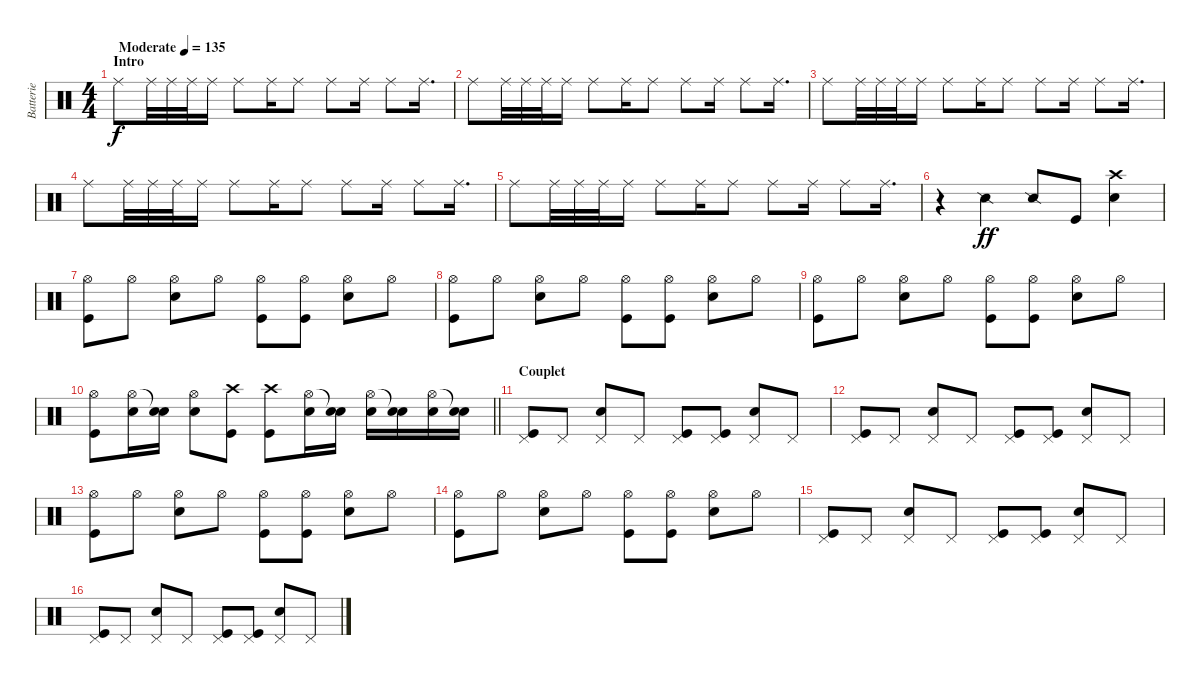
\track ("Batterie" "Batterie") {instrument percussion}
\staff {score}
\articulation defaults
\ts (4 4)
\section ("" "Intro")
\tempo (135 "Moderate")
\clef neutral
\ks c "Ride (middle)".8{dy f volume 12} "Ride (middle)".32 "Ride (middle)".32 "Ride (middle)".32 "Ride (middle)".16 "Ride (middle)".8 "Ride (middle)".16 "Ride (middle)".8 "Ride (middle)".8 "Ride (middle)".16 "Ride (middle)".8 "Ride (middle)".16{d}
|
"Ride (middle)".8 "Ride (middle)".32 "Ride (middle)".32 "Ride (middle)".32 "Ride (middle)".16 "Ride (middle)".8 "Ride (middle)".16 "Ride (middle)".8 "Ride (middle)".8 "Ride (middle)".16 "Ride (middle)".8 "Ride (middle)".16{d} |
"Ride (middle)".8{volume 8} "Ride (middle)".32 "Ride (middle)".32 "Ride (middle)".32 "Ride (middle)".16 "Ride (middle)".8 "Ride (middle)".16 "Ride (middle)".8 "Ride (middle)".8 "Ride (middle)".16 "Ride (middle)".8 "Ride (middle)".16{d} |
"Ride (middle)".8 "Ride (middle)".32 "Ride (middle)".32 "Ride (middle)".32 "Ride (middle)".16 "Ride (middle)".8 "Ride (middle)".16 "Ride (middle)".8 "Ride (middle)".8 "Ride (middle)".16 "Ride (middle)".8 "Ride (middle)".16{d} |
"Ride (middle)".8 "Ride (middle)".32 "Ride (middle)".32 "Ride (middle)".32 "Ride (middle)".16 "Ride (middle)".8 "Ride (middle)".16 "Ride (middle)".8 "Ride (middle)".8 "Ride (middle)".16 "Ride (middle)".8 "Ride (middle)".16{d} |
r.4 "Snare (side stick) 2".4{dy ff volume 16} "Snare (side stick) 2".8 "Kick (hit)".8 ("Crash high (hit)" "Electric Snare (hit)").4 |
("Hi-Hat (open)" "Kick (hit)").8 "Hi-Hat (open)".8 ("Hi-Hat (open)" "Electric Snare (hit)").8 "Hi-Hat (open)".8 ("Hi-Hat (open)" "Kick (hit)").8 ("Hi-Hat (open)" "Kick (hit)").8 ("Hi-Hat (open)" "Electric Snare (hit)").8 "Hi-Hat (open)".8 |
("Hi-Hat (open)" "Kick (hit)").8 "Hi-Hat (open)".8 ("Hi-Hat (open)" "Electric Snare (hit)").8 "Hi-Hat (open)".8 ("Hi-Hat (open)" "Kick (hit)").8 ("Hi-Hat (open)" "Kick (hit)").8 ("Hi-Hat (open)" "Electric Snare (hit)").8 "Hi-Hat (open)".8 |
("Hi-Hat (open)" "Kick (hit)").8 "Hi-Hat (open)".8 ("Hi-Hat (open)" "Electric Snare (hit)").8 "Hi-Hat (open)".8 ("Hi-Hat (open)" "Kick (hit)").8 ("Hi-Hat (open)" "Kick (hit)").8 ("Hi-Hat (open)" "Electric Snare (hit)").8 "Hi-Hat (open)".8 |
\barLineRight lightlight
("Hi-Hat (open)" "Kick (hit)").8 ("Hi-Hat (open)" "Electric Snare (hit)").16 ("Snare (hit)"{t} "Electric Snare (hit)").16 ("Hi-Hat (open)" "Electric Snare (hit)").8 ("Crash high (hit)" "Kick (hit)").8 ("Crash high (hit)" "Kick (hit)").8 ("Hi-Hat (open)" "Electric Snare (hit)").16 ("Snare (hit)"{t} "Electric Snare (hit)").16 ("Hi-Hat (open)" "Electric Snare (hit)").16 ("Snare (hit)"{t} "Electric Snare (hit)").16 ("Hi-Hat (open)" "Electric Snare (hit)").16 ("Snare (hit)"{t} "Electric Snare (hit)").16 |
\section ("" "Couplet")
("Pedal Hi-Hat (hit)" "Kick (hit)").8 "Pedal Hi-Hat (hit)".8 ("Pedal Hi-Hat (hit)" "Electric Snare (hit)").8 "Pedal Hi-Hat (hit)".8 ("Pedal Hi-Hat (hit)" "Kick (hit)").8 ("Pedal Hi-Hat (hit)" "Kick (hit)").8 ("Pedal Hi-Hat (hit)" "Electric Snare (hit)").8 "Pedal Hi-Hat (hit)".8 |
("Pedal Hi-Hat (hit)" "Kick (hit)").8 "Pedal Hi-Hat (hit)".8 ("Pedal Hi-Hat (hit)" "Electric Snare (hit)").8 "Pedal Hi-Hat (hit)".8 ("Pedal Hi-Hat (hit)" "Kick (hit)").8 ("Pedal Hi-Hat (hit)" "Kick (hit)").8 ("Pedal Hi-Hat (hit)" "Electric Snare (hit)").8 "Pedal Hi-Hat (hit)".8 |
("Hi-Hat (open)" "Kick (hit)").8 "Hi-Hat (open)".8 ("Hi-Hat (open)" "Electric Snare (hit)").8 "Hi-Hat (open)".8 ("Hi-Hat (open)" "Kick (hit)").8 ("Hi-Hat (open)" "Kick (hit)").8 ("Hi-Hat (open)" "Electric Snare (hit)").8 "Hi-Hat (open)".8 |
("Hi-Hat (open)" "Kick (hit)").8 "Hi-Hat (open)".8 ("Hi-Hat (open)" "Electric Snare (hit)").8 "Hi-Hat (open)".8 ("Hi-Hat (open)" "Kick (hit)").8 ("Hi-Hat (open)" "Kick (hit)").8 ("Hi-Hat (open)" "Electric Snare (hit)").8 "Hi-Hat (open)".8 |
("Pedal Hi-Hat (hit)" "Kick (hit)").8 "Pedal Hi-Hat (hit)".8 ("Pedal Hi-Hat (hit)" "Electric Snare (hit)").8 "Pedal Hi-Hat (hit)".8 ("Pedal Hi-Hat (hit)" "Kick (hit)").8 ("Pedal Hi-Hat (hit)" "Kick (hit)").8 ("Pedal Hi-Hat (hit)" "Electric Snare (hit)").8 "Pedal Hi-Hat (hit)".8 |
("Pedal Hi-Hat (hit)" "Kick (hit)").8 "Pedal Hi-Hat (hit)".8 ("Pedal Hi-Hat (hit)" "Electric Snare (hit)").8 "Pedal Hi-Hat (hit)".8 ("Pedal Hi-Hat (hit)" "Kick (hit)").8 ("Pedal Hi-Hat (hit)" "Kick (hit)").8 ("Pedal Hi-Hat (hit)" "Electric Snare (hit)").8 "Pedal Hi-Hat (hit)".8
